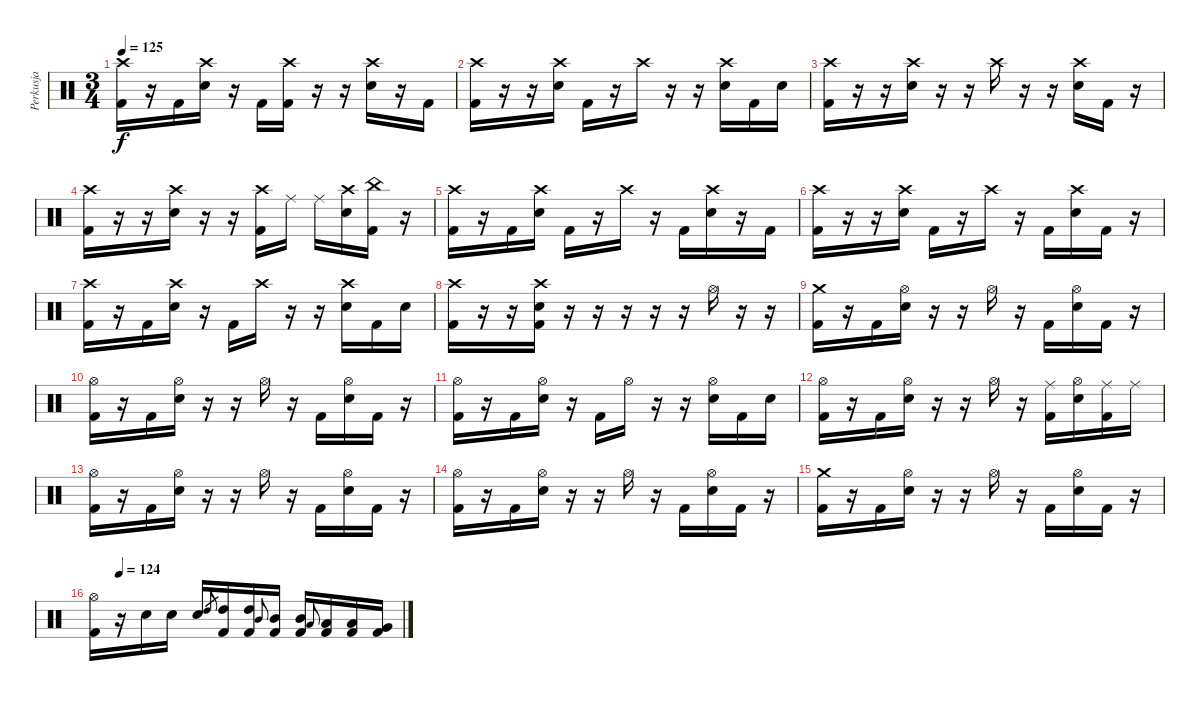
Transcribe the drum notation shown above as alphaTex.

\track ("Perkusja" "Perkusja") {instrument percussion}
\staff {score}
\articulation defaults
\ts (3 4)
\tempo 125
\clef neutral
\ks c
("Kick (hit) 2" "Crash high (hit)").16{dy f} r.16 "Kick (hit) 2".16 ("Crash high (hit)" "Electric Snare (hit)").16 r.16 "Kick (hit) 2".16 ("Crash high (hit)" "Kick (hit) 2").16 r.16 r.16 ("Crash high (hit)" "Electric Snare (hit)").16 r.16 "Kick (hit) 2".16 |
("Kick (hit) 2" "Crash high (hit)").16 r.16 r.16 ("Crash high (hit)" "Electric Snare (hit)").16 "Kick (hit) 2".16 r.16 "Crash high (hit)".16 r.16 r.16 ("Crash high (hit)" "Electric Snare (hit)").16 "Kick (hit) 2".16 "Electric Snare (hit)".16 |
("Kick (hit) 2" "Crash high (hit)").16 r.16 r.16 ("Crash high (hit)" "Electric Snare (hit)").16 r.16 r.16 "Crash high (hit)".16 r.16 r.16 ("Crash high (hit)" "Electric Snare (hit)").16 "Kick (hit) 2".16 r.16 |
("Kick (hit) 2" "Crash high (hit)").16 r.16 r.16 ("Crash high (hit)" "Electric Snare (hit)").16 r.16 r.16 ("Crash high (hit)" "Kick (hit) 2").16 "Ride (middle)".16 "Ride (middle)".16 ("Crash high (hit)" "Electric Snare (hit)").16 ("China (hit)" "Kick (hit) 2").16 r.16 |
("Kick (hit) 2" "Crash high (hit)").16 r.16 "Kick (hit) 2".16 ("Crash high (hit)" "Electric Snare (hit)").16 "Kick (hit) 2".16 r.16 "Crash high (hit)".16 r.16 "Kick (hit) 2".16 ("Crash high (hit)" "Electric Snare (hit)").16 r.16 "Kick (hit) 2".16 |
("Kick (hit) 2" "Crash high (hit)").16 r.16 r.16 ("Crash high (hit)" "Electric Snare (hit)").16 "Kick (hit) 2".16 r.16 "Crash high (hit)".16 r.16 "Kick (hit) 2".16 ("Crash high (hit)" "Electric Snare (hit)").16 "Kick (hit) 2".16 r.16 |
("Kick (hit) 2" "Crash high (hit)").16 r.16 "Kick (hit) 2".16 ("Crash high (hit)" "Electric Snare (hit)").16 r.16 "Kick (hit) 2".16 "Crash high (hit)".16 r.16 r.16 ("Crash high (hit)" "Electric Snare (hit)").16 "Kick (hit) 2".16 "Electric Snare (hit)".16 |
("Kick (hit) 2" "Crash high (hit)").16 r.16 r.16 ("Crash high (hit)" "Kick (hit) 2" "Electric Snare (hit)").16 r.16 r.16 r.16 r.16 r.16 "Hi-Hat (open)".16 r.16 r.16 |
("Kick (hit) 2" "Crash medium (hit)").16 r.16 "Kick (hit) 2".16 ("Hi-Hat (open)" "Electric Snare (hit)").16 r.16 r.16 "Hi-Hat (open)".16 r.16 "Kick (hit) 2".16 ("Hi-Hat (open)" "Electric Snare (hit)").16 "Kick (hit) 2".16 r.16 |
("Hi-Hat (open)" "Kick (hit) 2").16 r.16 "Kick (hit) 2".16 ("Hi-Hat (open)" "Electric Snare (hit)").16 r.16 r.16 "Hi-Hat (open)".16 r.16 "Kick (hit) 2".16 ("Hi-Hat (open)" "Electric Snare (hit)").16 "Kick (hit) 2".16 r.16 |
("Hi-Hat (open)" "Kick (hit) 2").16 r.16 "Kick (hit) 2".16 ("Hi-Hat (open)" "Electric Snare (hit)").16 r.16 "Kick (hit) 2".16 "Hi-Hat (open)".16 r.16 r.16 ("Hi-Hat (open)" "Electric Snare (hit)").16 "Kick (hit) 2".16 "Electric Snare (hit)".16 |
("Hi-Hat (open)" "Kick (hit) 2").16 r.16 "Kick (hit) 2".16 ("Hi-Hat (open)" "Electric Snare (hit)").16 r.16 r.16 "Hi-Hat (open)".16 r.16 ("Ride (middle)" "Kick (hit) 2").16 ("Hi-Hat (open)" "Electric Snare (hit)").16 ("Ride (middle)" "Kick (hit) 2").16 "Ride (middle)".16 |
("Kick (hit) 2" "Hi-Hat (open)").16 r.16 "Kick (hit) 2".16 ("Hi-Hat (open)" "Electric Snare (hit)").16 r.16 r.16 "Hi-Hat (open)".16 r.16 "Kick (hit) 2".16 ("Hi-Hat (open)" "Electric Snare (hit)").16 "Kick (hit) 2".16 r.16 |
("Hi-Hat (open)" "Kick (hit) 2").16 r.16 "Kick (hit) 2".16 ("Hi-Hat (open)" "Electric Snare (hit)").16 r.16 r.16 "Hi-Hat (open)".16 r.16 "Kick (hit) 2".16 ("Hi-Hat (open)" "Electric Snare (hit)").16 "Kick (hit) 2".16 r.16 |
("Kick (hit) 2" "Crash medium (hit)").16 r.16 "Kick (hit) 2".16 ("Hi-Hat (open)" "Electric Snare (hit)").16 r.16 r.16 "Hi-Hat (open)".16 r.16 "Kick (hit) 2".16 ("Hi-Hat (open)" "Electric Snare (hit)").16 "Kick (hit) 2".16 r.16 |
\tempo (124 0.08333333333333333)
("Hi-Hat (open)" "Kick (hit) 2").16 r.16 "Electric Snare (hit)".16 "Electric Snare (hit)".16 "Electric Snare (hit)".16 "High Tom (hit)".8{gr} ("Kick (hit) 2" "High Tom (hit)").16 ("Kick (hit) 2" "High Tom (hit)").16 "Mid Tom (hit)".8{gr onbeat} ("Kick (hit) 2" "Mid Tom (hit)").16 ("Kick (hit) 2" "Mid Tom (hit)").16 "Low Tom (hit)".8{gr onbeat} ("Kick (hit) 2" "Low Tom (hit)").16 ("Kick (hit) 2" "Low Tom (hit)").16 ("Kick (hit) 2" "Very Low Tom (hit)").16
